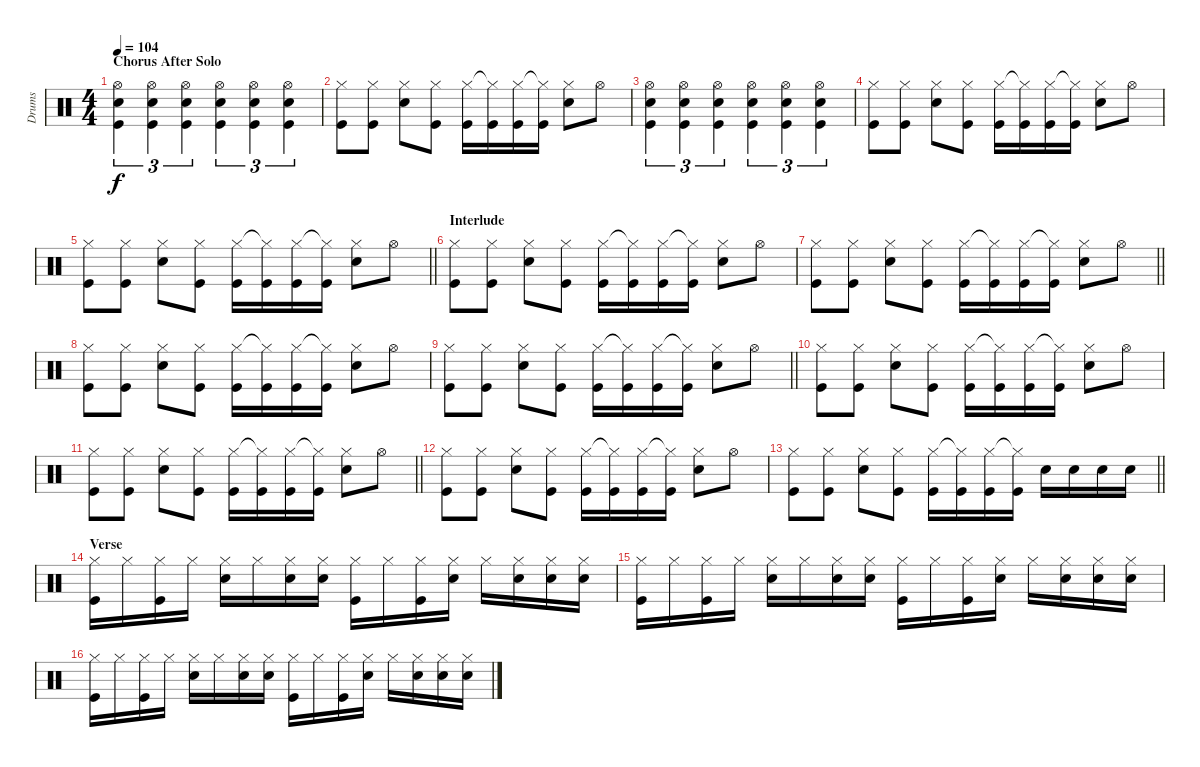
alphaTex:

\track ("Drums" "Drums") {instrument percussion}
\staff {score}
\articulation defaults
\ts (4 4)
\section ("" "Chorus After Solo")
\tempo 104
\clef neutral
\ks c
("Hi-Hat (open)" "Electric Snare (hit)" "Kick (hit)").4{tu (3 2) dy f} ("Hi-Hat (open)" "Electric Snare (hit)" "Kick (hit)").4{tu (3 2)} ("Hi-Hat (open)" "Electric Snare (hit)" "Kick (hit)").4{tu (3 2)} ("Hi-Hat (open)" "Electric Snare (hit)" "Kick (hit)").4{tu (3 2)} ("Hi-Hat (open)" "Electric Snare (hit)" "Kick (hit)").4{tu (3 2)} ("Hi-Hat (open)" "Electric Snare (hit)" "Kick (hit)").4{tu (3 2)} |
("Hi-Hat (closed)" "Kick (hit)").8 ("Hi-Hat (closed)" "Kick (hit)").8 ("Hi-Hat (closed)" "Electric Snare (hit)").8 ("Hi-Hat (closed)" "Kick (hit)").8 ("Hi-Hat (closed)" "Kick (hit)").16 ("Hi-Hat (closed)"{t} "Kick (hit)").16 ("Hi-Hat (closed)" "Kick (hit)").16 ("Hi-Hat (closed)"{t} "Kick (hit)").16 ("Hi-Hat (closed)" "Electric Snare (hit)").8 "Hi-Hat (open)".8 |
("Hi-Hat (open)" "Electric Snare (hit)" "Kick (hit)").4{tu (3 2)} ("Hi-Hat (open)" "Electric Snare (hit)" "Kick (hit)").4{tu (3 2)} ("Hi-Hat (open)" "Electric Snare (hit)" "Kick (hit)").4{tu (3 2)} ("Hi-Hat (open)" "Electric Snare (hit)" "Kick (hit)").4{tu (3 2)} ("Hi-Hat (open)" "Electric Snare (hit)" "Kick (hit)").4{tu (3 2)} ("Hi-Hat (open)" "Electric Snare (hit)" "Kick (hit)").4{tu (3 2)} |
("Hi-Hat (closed)" "Kick (hit)").8 ("Hi-Hat (closed)" "Kick (hit)").8 ("Hi-Hat (closed)" "Electric Snare (hit)").8 ("Hi-Hat (closed)" "Kick (hit)").8 ("Hi-Hat (closed)" "Kick (hit)").16 ("Hi-Hat (closed)"{t} "Kick (hit)").16 ("Hi-Hat (closed)" "Kick (hit)").16 ("Hi-Hat (closed)"{t} "Kick (hit)").16 ("Hi-Hat (closed)" "Electric Snare (hit)").8 "Hi-Hat (open)".8 |
\barLineRight lightlight
("Hi-Hat (closed)" "Kick (hit)").8 ("Hi-Hat (closed)" "Kick (hit)").8 ("Hi-Hat (closed)" "Electric Snare (hit)").8 ("Hi-Hat (closed)" "Kick (hit)").8 ("Hi-Hat (closed)" "Kick (hit)").16 ("Hi-Hat (closed)"{t} "Kick (hit)").16 ("Hi-Hat (closed)" "Kick (hit)").16 ("Hi-Hat (closed)"{t} "Kick (hit)").16 ("Hi-Hat (closed)" "Electric Snare (hit)").8 "Hi-Hat (open)".8 |
\section ("" "Interlude")
("Hi-Hat (closed)" "Kick (hit)").8 ("Hi-Hat (closed)" "Kick (hit)").8 ("Hi-Hat (closed)" "Electric Snare (hit)").8 ("Hi-Hat (closed)" "Kick (hit)").8 ("Hi-Hat (closed)" "Kick (hit)").16 ("Hi-Hat (closed)"{t} "Kick (hit)").16 ("Hi-Hat (closed)" "Kick (hit)").16 ("Hi-Hat (closed)"{t} "Kick (hit)").16 ("Hi-Hat (closed)" "Electric Snare (hit)").8 "Hi-Hat (open)".8 |
\barLineRight lightlight
("Hi-Hat (closed)" "Kick (hit)").8 ("Hi-Hat (closed)" "Kick (hit)").8 ("Hi-Hat (closed)" "Electric Snare (hit)").8 ("Hi-Hat (closed)" "Kick (hit)").8 ("Hi-Hat (closed)" "Kick (hit)").16 ("Hi-Hat (closed)"{t} "Kick (hit)").16 ("Hi-Hat (closed)" "Kick (hit)").16 ("Hi-Hat (closed)"{t} "Kick (hit)").16 ("Hi-Hat (closed)" "Electric Snare (hit)").8 "Hi-Hat (open)".8 |
("Hi-Hat (closed)" "Kick (hit)").8 ("Hi-Hat (closed)" "Kick (hit)").8 ("Hi-Hat (closed)" "Electric Snare (hit)").8 ("Hi-Hat (closed)" "Kick (hit)").8 ("Hi-Hat (closed)" "Kick (hit)").16 ("Hi-Hat (closed)"{t} "Kick (hit)").16 ("Hi-Hat (closed)" "Kick (hit)").16 ("Hi-Hat (closed)"{t} "Kick (hit)").16 ("Hi-Hat (closed)" "Electric Snare (hit)").8 "Hi-Hat (open)".8 |
\barLineRight lightlight
("Hi-Hat (closed)" "Kick (hit)").8 ("Hi-Hat (closed)" "Kick (hit)").8 ("Hi-Hat (closed)" "Electric Snare (hit)").8 ("Hi-Hat (closed)" "Kick (hit)").8 ("Hi-Hat (closed)" "Kick (hit)").16 ("Hi-Hat (closed)"{t} "Kick (hit)").16 ("Hi-Hat (closed)" "Kick (hit)").16 ("Hi-Hat (closed)"{t} "Kick (hit)").16 ("Hi-Hat (closed)" "Electric Snare (hit)").8 "Hi-Hat (open)".8 |
("Hi-Hat (closed)" "Kick (hit)").8 ("Hi-Hat (closed)" "Kick (hit)").8 ("Hi-Hat (closed)" "Electric Snare (hit)").8 ("Hi-Hat (closed)" "Kick (hit)").8 ("Hi-Hat (closed)" "Kick (hit)").16 ("Hi-Hat (closed)"{t} "Kick (hit)").16 ("Hi-Hat (closed)" "Kick (hit)").16 ("Hi-Hat (closed)"{t} "Kick (hit)").16 ("Hi-Hat (closed)" "Electric Snare (hit)").8 "Hi-Hat (open)".8 |
\barLineRight lightlight
("Hi-Hat (closed)" "Kick (hit)").8 ("Hi-Hat (closed)" "Kick (hit)").8 ("Hi-Hat (closed)" "Electric Snare (hit)").8 ("Hi-Hat (closed)" "Kick (hit)").8 ("Hi-Hat (closed)" "Kick (hit)").16 ("Hi-Hat (closed)"{t} "Kick (hit)").16 ("Hi-Hat (closed)" "Kick (hit)").16 ("Hi-Hat (closed)"{t} "Kick (hit)").16 ("Hi-Hat (closed)" "Electric Snare (hit)").8 "Hi-Hat (open)".8 |
("Hi-Hat (closed)" "Kick (hit)").8 ("Hi-Hat (closed)" "Kick (hit)").8 ("Hi-Hat (closed)" "Electric Snare (hit)").8 ("Hi-Hat (closed)" "Kick (hit)").8 ("Hi-Hat (closed)" "Kick (hit)").16 ("Hi-Hat (closed)"{t} "Kick (hit)").16 ("Hi-Hat (closed)" "Kick (hit)").16 ("Hi-Hat (closed)"{t} "Kick (hit)").16 ("Hi-Hat (closed)" "Electric Snare (hit)").8 "Hi-Hat (open)".8 |
\barLineRight lightlight
("Hi-Hat (closed)" "Kick (hit)").8 ("Hi-Hat (closed)" "Kick (hit)").8 ("Hi-Hat (closed)" "Electric Snare (hit)").8 ("Hi-Hat (closed)" "Kick (hit)").8 ("Hi-Hat (closed)" "Kick (hit)").16 ("Hi-Hat (closed)"{t} "Kick (hit)").16 ("Hi-Hat (closed)" "Kick (hit)").16 ("Hi-Hat (closed)"{t} "Kick (hit)").16 "Electric Snare (hit)".16 "Electric Snare (hit)".16 "Electric Snare (hit)".16 "Electric Snare (hit)".16 |
\section ("" "Verse")
("Hi-Hat (closed)" "Kick (hit)").16 "Hi-Hat (closed)".16 ("Hi-Hat (closed)" "Kick (hit)").16 "Hi-Hat (closed)".16 ("Hi-Hat (closed)" "Electric Snare (hit)").16 "Hi-Hat (closed)".16 ("Hi-Hat (closed)" "Electric Snare (hit)").16 ("Hi-Hat (closed)" "Electric Snare (hit)").16 ("Hi-Hat (closed)" "Kick (hit)").16 "Hi-Hat (closed)".16 ("Hi-Hat (closed)" "Kick (hit)").16 ("Hi-Hat (closed)" "Electric Snare (hit)").16 "Hi-Hat (closed)".16 ("Hi-Hat (closed)" "Electric Snare (hit)").16 ("Hi-Hat (closed)" "Electric Snare (hit)").16 ("Hi-Hat (closed)" "Electric Snare (hit)").16 |
("Hi-Hat (closed)" "Kick (hit)").16 "Hi-Hat (closed)".16 ("Hi-Hat (closed)" "Kick (hit)").16 "Hi-Hat (closed)".16 ("Hi-Hat (closed)" "Electric Snare (hit)").16 "Hi-Hat (closed)".16 ("Hi-Hat (closed)" "Electric Snare (hit)").16 ("Hi-Hat (closed)" "Electric Snare (hit)").16 ("Hi-Hat (closed)" "Kick (hit)").16 "Hi-Hat (closed)".16 ("Hi-Hat (closed)" "Kick (hit)").16 ("Hi-Hat (closed)" "Electric Snare (hit)").16 "Hi-Hat (closed)".16 ("Hi-Hat (closed)" "Electric Snare (hit)").16 ("Hi-Hat (closed)" "Electric Snare (hit)").16 ("Hi-Hat (closed)" "Electric Snare (hit)").16 |
("Hi-Hat (closed)" "Kick (hit)").16 "Hi-Hat (closed)".16 ("Hi-Hat (closed)" "Kick (hit)").16 "Hi-Hat (closed)".16 ("Hi-Hat (closed)" "Electric Snare (hit)").16 "Hi-Hat (closed)".16 ("Hi-Hat (closed)" "Electric Snare (hit)").16 ("Hi-Hat (closed)" "Electric Snare (hit)").16 ("Hi-Hat (closed)" "Kick (hit)").16 "Hi-Hat (closed)".16 ("Hi-Hat (closed)" "Kick (hit)").16 ("Hi-Hat (closed)" "Electric Snare (hit)").16 "Hi-Hat (closed)".16 ("Hi-Hat (closed)" "Electric Snare (hit)").16 ("Hi-Hat (closed)" "Electric Snare (hit)").16 ("Hi-Hat (closed)" "Electric Snare (hit)").16
